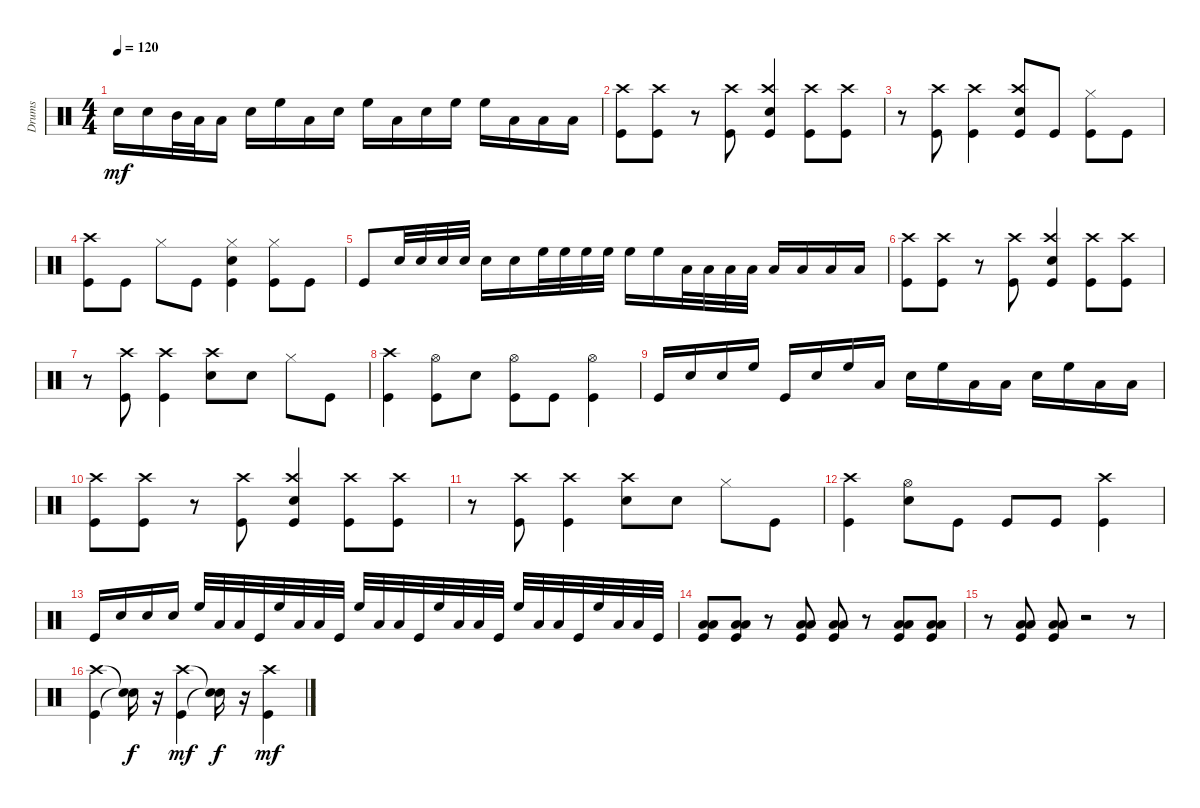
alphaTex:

\track ("Drums" "Drums") {instrument percussion}
\staff {score}
\articulation defaults
\ts (4 4)
\tempo 120
\clef neutral
\ks c "Snare (hit) 2".16{dy mf} "Snare (hit) 2".16 "Mid Tom (hit)".32 "Low Tom (hit)".32 "Low Floor Tom (hit)".16 "Snare (hit) 2".16 "High Floor Tom (hit)".16 "Low Tom (hit)".16 "Snare (hit) 2".16 "High Floor Tom (hit)".16 "Low Tom (hit)".16 "Snare (hit) 2".16 "High Floor Tom (hit)".16 "High Floor Tom (hit)".16 "Low Tom (hit)".16 "Low Floor Tom (hit)".16 "Low Floor Tom (hit)".16
|
("Crash high (hit)" "Kick (hit)").8 ("Crash high (hit)" "Kick (hit)").8 r.8 ("Crash high (hit)" "Kick (hit)").8 ("Snare (hit) 2" "Crash high (hit)" "Kick (hit)").4 ("Crash high (hit)" "Kick (hit)").8 ("Crash high (hit)" "Kick (hit)").8 |
r.8 ("Crash high (hit)" "Kick (hit)").8 ("Crash high (hit)" "Kick (hit)").4 ("Snare (hit) 2" "Crash high (hit)" "Kick (hit)").8 "Kick (hit)".8 ("Hi-Hat (closed)" "Kick (hit)").8 "Kick (hit)".8 |
("Kick (hit)" "Crash high (hit)").8 "Kick (hit)".8 "Hi-Hat (closed)".8 "Kick (hit)".8 ("Kick (hit)" "Snare (hit) 2" "Hi-Hat (closed)").4 ("Kick (hit)" "Hi-Hat (closed)").8 "Kick (hit)".8 |
"Kick (hit)".8 "Snare (hit) 2".32 "Snare (hit) 2".32 "Snare (hit) 2".32 "Snare (hit) 2".32 "Snare (hit) 2".16 "Snare (hit) 2".16 "High Floor Tom (hit)".32 "High Floor Tom (hit)".32 "High Floor Tom (hit)".32 "High Floor Tom (hit)".32 "High Floor Tom (hit)".16 "High Floor Tom (hit)".16 "Low Tom (hit)".32 "Low Tom (hit)".32 "Low Tom (hit)".32 "Low Tom (hit)".32 "Low Tom (hit)".16 "Low Tom (hit)".16 "Low Floor Tom (hit)".16 "Low Floor Tom (hit)".16 |
("Crash high (hit)" "Kick (hit)").8 ("Crash high (hit)" "Kick (hit)").8 r.8 ("Crash high (hit)" "Kick (hit)").8 ("Snare (hit) 2" "Crash high (hit)" "Kick (hit)").4 ("Crash high (hit)" "Kick (hit)").8 ("Crash high (hit)" "Kick (hit)").8 |
r.8 ("Crash high (hit)" "Kick (hit)").8 ("Crash high (hit)" "Kick (hit)").4 ("Snare (hit) 2" "Crash high (hit)").8 "Snare (hit) 2".8 "Hi-Hat (closed)".8 "Kick (hit)".8 |
("Kick (hit)" "Crash high (hit)").4 ("Kick (hit)" "Hi-Hat (open)").8 "Snare (hit) 2".8 ("Kick (hit)" "Hi-Hat (open)").8 "Kick (hit)".8 ("Hi-Hat (open)" "Kick (hit)").4 |
"Kick (hit)".16 "Snare (hit) 2".16 "Snare (hit) 2".16 "High Floor Tom (hit)".16 "Kick (hit)".16 "Snare (hit) 2".16 "High Floor Tom (hit)".16 "Low Tom (hit)".16 "Snare (hit) 2".16 "High Floor Tom (hit)".16 "Low Tom (hit)".16 "Low Floor Tom (hit)".16 "Snare (hit) 2".16 "High Floor Tom (hit)".16 "Low Tom (hit)".16 "Low Floor Tom (hit)".16 |
("Kick (hit)" "Crash high (hit)").8 ("Kick (hit)" "Crash high (hit)").8 r.8 ("Kick (hit)" "Crash high (hit)").8 ("Kick (hit)" "Snare (hit) 2" "Crash high (hit)").4 ("Kick (hit)" "Crash high (hit)").8 ("Kick (hit)" "Crash high (hit)").8 |
r.8 ("Kick (hit)" "Crash high (hit)").8 ("Kick (hit)" "Crash high (hit)").4 ("Snare (hit) 2" "Crash high (hit)").8 "Snare (hit) 2".8 "Hi-Hat (closed)".8 "Kick (hit)".8 |
("Crash high (hit)" "Kick (hit)").4 ("Snare (hit) 2" "Hi-Hat (open)").8 "Kick (hit)".8 "Kick (hit)".8 "Kick (hit)".8 ("Kick (hit)" "Crash high (hit)").4 |
"Kick (hit)".16 "Snare (hit) 2".16 "Snare (hit) 2".16 "Snare (hit) 2".16 "High Floor Tom (hit)".32 "Low Tom (hit)".32 "Low Floor Tom (hit)".32 "Kick (hit)".32 "High Floor Tom (hit)".32 "Low Tom (hit)".32 "Low Floor Tom (hit)".32 "Kick (hit)".32 "High Floor Tom (hit)".32 "Low Tom (hit)".32 "Low Floor Tom (hit)".32 "Kick (hit)".32 "High Floor Tom (hit)".32 "Low Tom (hit)".32 "Low Floor Tom (hit)".32 "Kick (hit)".32 "High Floor Tom (hit)".32 "Low Tom (hit)".32 "Low Floor Tom (hit)".32 "Kick (hit)".32 "High Floor Tom (hit)".32 "Low Tom (hit)".32 "Low Floor Tom (hit)".32 "Kick (hit)".32 |
("Low Floor Tom (hit)" "Low Tom (hit)" "Kick (hit)").8 ("Low Floor Tom (hit)" "Low Tom (hit)" "Kick (hit)").8 r.8 ("Low Floor Tom (hit)" "Low Tom (hit)" "Kick (hit)").8 ("Low Floor Tom (hit)" "Low Tom (hit)" "Kick (hit)").8 r.8 ("Low Floor Tom (hit)" "Low Tom (hit)" "Kick (hit)").8 ("Low Floor Tom (hit)" "Low Tom (hit)" "Kick (hit)").8 |
r.8 ("Low Floor Tom (hit)" "Low Tom (hit)" "Kick (hit)").8 ("Low Floor Tom (hit)" "Low Tom (hit)" "Kick (hit)").8 r.2 r.8 |
("Crash high (hit)" "Kick (hit)").4 ("Snare (hit)"{t} "Snare (hit)"{t}).16{dy f} r.16 ("Crash high (hit)" "Kick (hit)").4{dy mf} ("Snare (hit)"{t} "Snare (hit)"{t}).16{dy f} r.16 ("Crash high (hit)" "Kick (hit)").4{dy mf}
